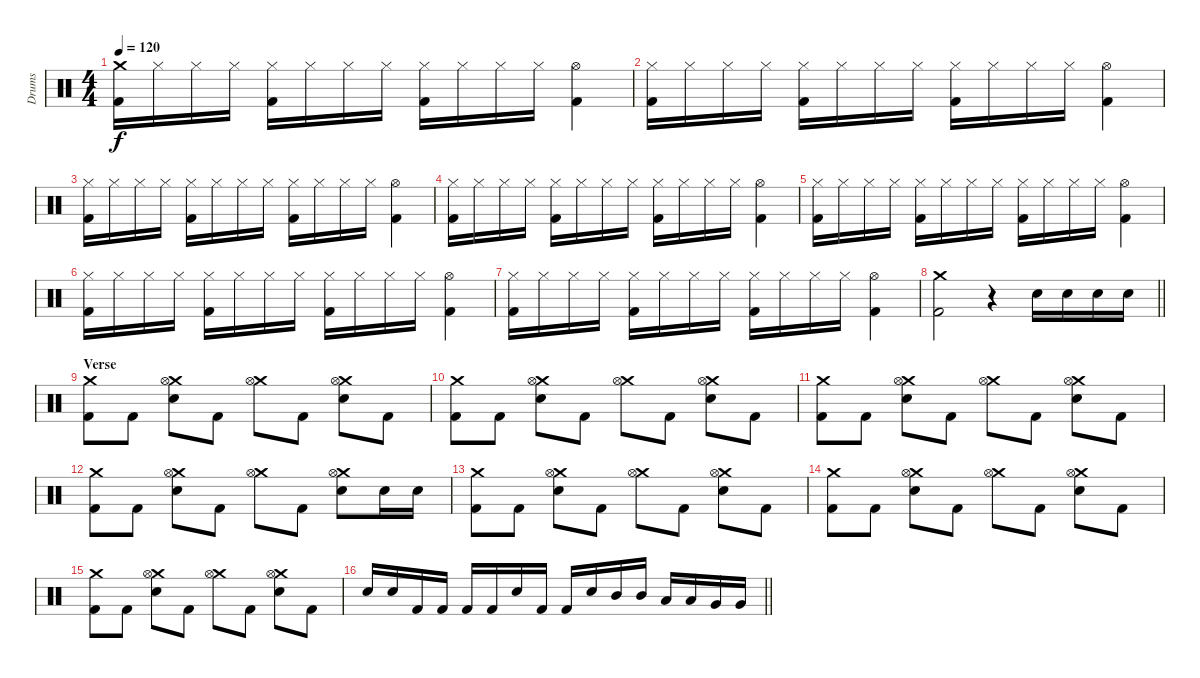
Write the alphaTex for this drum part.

\track ("Drums" "Drums") {instrument percussion}
\staff {score}
\articulation defaults
\ts (4 4)
\tempo 120
\clef neutral
\ks c
("Crash medium (hit)" "Kick (hit) 2").16{dy f} "Hi-Hat (closed)".16 "Hi-Hat (closed)".16 "Hi-Hat (closed)".16 ("Hi-Hat (closed)" "Kick (hit) 2").16 "Hi-Hat (closed)".16 "Hi-Hat (closed)".16 "Hi-Hat (closed)".16 ("Hi-Hat (closed)" "Kick (hit) 2").16 "Hi-Hat (closed)".16 "Hi-Hat (closed)".16 "Hi-Hat (closed)".16 ("Hi-Hat (open)" "Kick (hit) 2").4 |
("Hi-Hat (closed)" "Kick (hit) 2").16 "Hi-Hat (closed)".16 "Hi-Hat (closed)".16 "Hi-Hat (closed)".16 ("Hi-Hat (closed)" "Kick (hit) 2").16 "Hi-Hat (closed)".16 "Hi-Hat (closed)".16 "Hi-Hat (closed)".16 ("Hi-Hat (closed)" "Kick (hit) 2").16 "Hi-Hat (closed)".16 "Hi-Hat (closed)".16 "Hi-Hat (closed)".16 ("Hi-Hat (open)" "Kick (hit) 2").4 |
("Hi-Hat (closed)" "Kick (hit) 2").16 "Hi-Hat (closed)".16 "Hi-Hat (closed)".16 "Hi-Hat (closed)".16 ("Hi-Hat (closed)" "Kick (hit) 2").16 "Hi-Hat (closed)".16 "Hi-Hat (closed)".16 "Hi-Hat (closed)".16 ("Hi-Hat (closed)" "Kick (hit) 2").16 "Hi-Hat (closed)".16 "Hi-Hat (closed)".16 "Hi-Hat (closed)".16 ("Hi-Hat (open)" "Kick (hit) 2").4 |
("Hi-Hat (closed)" "Kick (hit) 2").16 "Hi-Hat (closed)".16 "Hi-Hat (closed)".16 "Hi-Hat (closed)".16 ("Hi-Hat (closed)" "Kick (hit) 2").16 "Hi-Hat (closed)".16 "Hi-Hat (closed)".16 "Hi-Hat (closed)".16 ("Hi-Hat (closed)" "Kick (hit) 2").16 "Hi-Hat (closed)".16 "Hi-Hat (closed)".16 "Hi-Hat (closed)".16 ("Hi-Hat (open)" "Kick (hit) 2").4 |
("Hi-Hat (closed)" "Kick (hit) 2").16 "Hi-Hat (closed)".16 "Hi-Hat (closed)".16 "Hi-Hat (closed)".16 ("Hi-Hat (closed)" "Kick (hit) 2").16 "Hi-Hat (closed)".16 "Hi-Hat (closed)".16 "Hi-Hat (closed)".16 ("Hi-Hat (closed)" "Kick (hit) 2").16 "Hi-Hat (closed)".16 "Hi-Hat (closed)".16 "Hi-Hat (closed)".16 ("Hi-Hat (open)" "Kick (hit) 2").4 |
("Hi-Hat (closed)" "Kick (hit) 2").16 "Hi-Hat (closed)".16 "Hi-Hat (closed)".16 "Hi-Hat (closed)".16 ("Hi-Hat (closed)" "Kick (hit) 2").16 "Hi-Hat (closed)".16 "Hi-Hat (closed)".16 "Hi-Hat (closed)".16 ("Hi-Hat (closed)" "Kick (hit) 2").16 "Hi-Hat (closed)".16 "Hi-Hat (closed)".16 "Hi-Hat (closed)".16 ("Hi-Hat (open)" "Kick (hit) 2").4 |
("Hi-Hat (closed)" "Kick (hit) 2").16 "Hi-Hat (closed)".16 "Hi-Hat (closed)".16 "Hi-Hat (closed)".16 ("Hi-Hat (closed)" "Kick (hit) 2").16 "Hi-Hat (closed)".16 "Hi-Hat (closed)".16 "Hi-Hat (closed)".16 ("Hi-Hat (closed)" "Kick (hit) 2").16 "Hi-Hat (closed)".16 "Hi-Hat (closed)".16 "Hi-Hat (closed)".16 ("Hi-Hat (open)" "Kick (hit) 2").4 |
\barLineRight lightlight
("Crash medium (hit)" "Kick (hit) 2").2 r.4 "Electric Snare (hit)".16 "Electric Snare (hit)".16 "Electric Snare (hit)".16 "Electric Snare (hit)".16 |
\section ("" "Verse")
("Crash medium (hit)" "Kick (hit) 2").8 "Kick (hit) 2".8 ("Crash medium (hit)" "Hi-Hat (open)" "Electric Snare (hit)").8 "Kick (hit) 2".8 ("Crash medium (hit)" "Hi-Hat (open)").8 "Kick (hit) 2".8 ("Crash medium (hit)" "Hi-Hat (open)" "Electric Snare (hit)").8 "Kick (hit) 2".8 |
("Crash medium (hit)" "Kick (hit) 2").8 "Kick (hit) 2".8 ("Crash medium (hit)" "Hi-Hat (open)" "Electric Snare (hit)").8 "Kick (hit) 2".8 ("Crash medium (hit)" "Hi-Hat (open)").8 "Kick (hit) 2".8 ("Crash medium (hit)" "Hi-Hat (open)" "Electric Snare (hit)").8 "Kick (hit) 2".8 |
("Crash medium (hit)" "Kick (hit) 2").8 "Kick (hit) 2".8 ("Crash medium (hit)" "Hi-Hat (open)" "Electric Snare (hit)").8 "Kick (hit) 2".8 ("Crash medium (hit)" "Hi-Hat (open)").8 "Kick (hit) 2".8 ("Crash medium (hit)" "Hi-Hat (open)" "Electric Snare (hit)").8 "Kick (hit) 2".8 |
("Crash medium (hit)" "Kick (hit) 2").8 "Kick (hit) 2".8 ("Crash medium (hit)" "Hi-Hat (open)" "Electric Snare (hit)").8 "Kick (hit) 2".8 ("Crash medium (hit)" "Hi-Hat (open)").8 "Kick (hit) 2".8 ("Crash medium (hit)" "Hi-Hat (open)" "Electric Snare (hit)").8 "Electric Snare (hit)".16 "Electric Snare (hit)".16 |
("Crash medium (hit)" "Kick (hit) 2").8 "Kick (hit) 2".8 ("Crash medium (hit)" "Hi-Hat (open)" "Electric Snare (hit)").8 "Kick (hit) 2".8 ("Crash medium (hit)" "Hi-Hat (open)").8 "Kick (hit) 2".8 ("Crash medium (hit)" "Hi-Hat (open)" "Electric Snare (hit)").8 "Kick (hit) 2".8 |
("Crash medium (hit)" "Kick (hit) 2").8 "Kick (hit) 2".8 ("Crash medium (hit)" "Hi-Hat (open)" "Electric Snare (hit)").8 "Kick (hit) 2".8 ("Crash medium (hit)" "Hi-Hat (open)").8 "Kick (hit) 2".8 ("Crash medium (hit)" "Hi-Hat (open)" "Electric Snare (hit)").8 "Kick (hit) 2".8 |
("Crash medium (hit)" "Kick (hit) 2").8 "Kick (hit) 2".8 ("Crash medium (hit)" "Hi-Hat (open)" "Electric Snare (hit)").8 "Kick (hit) 2".8 ("Crash medium (hit)" "Hi-Hat (open)").8 "Kick (hit) 2".8 ("Crash medium (hit)" "Hi-Hat (open)" "Electric Snare (hit)").8 "Kick (hit) 2".8 |
\barLineRight lightlight "Electric Snare (hit)".16 "Electric Snare (hit)".16 "Kick (hit) 2".16 "Kick (hit) 2".16 "Kick (hit) 2".16 "Kick (hit) 2".16 "Electric Snare (hit)".16 "Kick (hit) 2".16 "Kick (hit) 2".16 "Electric Snare (hit)".16 "Mid Tom (hit)".16 "Mid Tom (hit)".16 "Low Tom (hit)".16 "Low Tom (hit)".16 "Very Low Tom (hit)".16 "Very Low Tom (hit)".16
